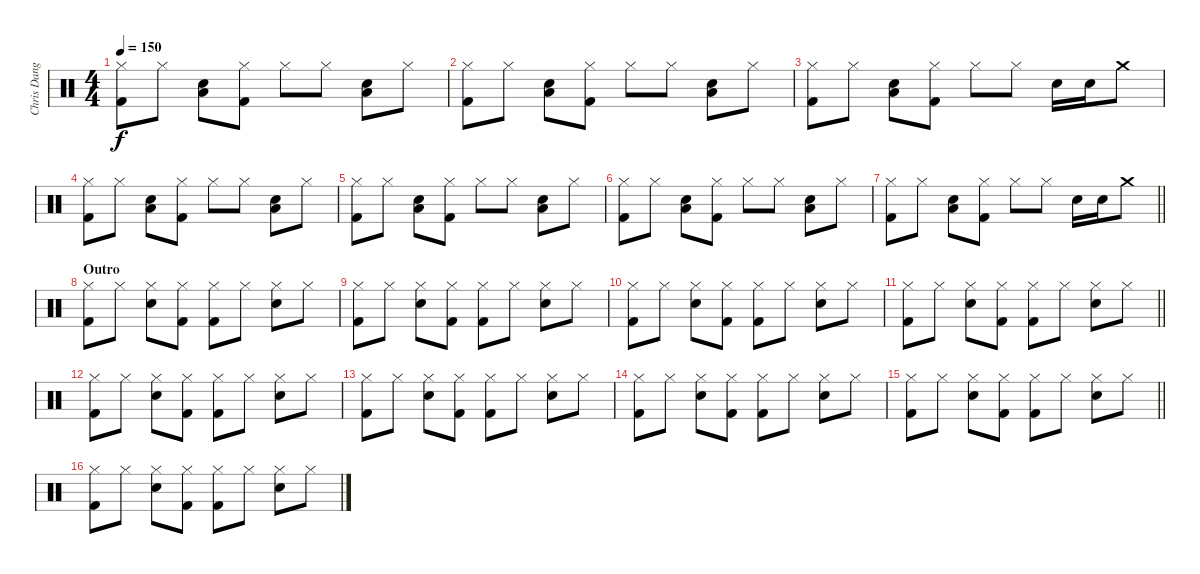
\track ("Chris Dangerous" "Chris Dang") {instrument percussion}
\staff {score}
\articulation defaults
\ts (4 4)
\tempo 150
\clef neutral
\ks c
("Hi-Hat (closed)" "Kick (hit) 2").8{dy f} "Hi-Hat (closed)".8 ("Low Floor Tom (hit)" "Snare (hit) 2").8 ("Hi-Hat (closed)" "Kick (hit) 2").8 "Hi-Hat (closed)".8 "Hi-Hat (closed)".8 ("Low Floor Tom (hit)" "Snare (hit) 2").8 "Hi-Hat (closed)".8 |
("Hi-Hat (closed)" "Kick (hit) 2").8 "Hi-Hat (closed)".8 ("Low Floor Tom (hit)" "Snare (hit) 2").8 ("Hi-Hat (closed)" "Kick (hit) 2").8 "Hi-Hat (closed)".8 "Hi-Hat (closed)".8 ("Low Floor Tom (hit)" "Snare (hit) 2").8 "Hi-Hat (closed)".8 |
("Hi-Hat (closed)" "Kick (hit) 2").8 "Hi-Hat (closed)".8 ("Low Floor Tom (hit)" "Snare (hit) 2").8 ("Hi-Hat (closed)" "Kick (hit) 2").8 "Hi-Hat (closed)".8 "Hi-Hat (closed)".8 "Snare (hit) 2".16 "Snare (hit) 2".16 "Crash medium (hit)".8 |
("Hi-Hat (closed)" "Kick (hit) 2").8 "Hi-Hat (closed)".8 ("Low Floor Tom (hit)" "Snare (hit) 2").8 ("Hi-Hat (closed)" "Kick (hit) 2").8 "Hi-Hat (closed)".8 "Hi-Hat (closed)".8 ("Low Floor Tom (hit)" "Snare (hit) 2").8 "Hi-Hat (closed)".8 |
("Hi-Hat (closed)" "Kick (hit) 2").8 "Hi-Hat (closed)".8 ("Low Floor Tom (hit)" "Snare (hit) 2").8 ("Hi-Hat (closed)" "Kick (hit) 2").8 "Hi-Hat (closed)".8 "Hi-Hat (closed)".8 ("Low Floor Tom (hit)" "Snare (hit) 2").8 "Hi-Hat (closed)".8 |
("Hi-Hat (closed)" "Kick (hit) 2").8 "Hi-Hat (closed)".8 ("Low Floor Tom (hit)" "Snare (hit) 2").8 ("Hi-Hat (closed)" "Kick (hit) 2").8 "Hi-Hat (closed)".8 "Hi-Hat (closed)".8 ("Low Floor Tom (hit)" "Snare (hit) 2").8 "Hi-Hat (closed)".8 |
\barLineRight lightlight
("Hi-Hat (closed)" "Kick (hit) 2").8 "Hi-Hat (closed)".8 ("Low Floor Tom (hit)" "Snare (hit) 2").8 ("Hi-Hat (closed)" "Kick (hit) 2").8 "Hi-Hat (closed)".8 "Hi-Hat (closed)".8 "Snare (hit) 2".16 "Snare (hit) 2".16 "Crash medium (hit)".8 |
\section ("" "Outro")
("Hi-Hat (closed)" "Kick (hit) 2").8 "Hi-Hat (closed)".8 ("Hi-Hat (closed)" "Snare (hit) 2").8 ("Hi-Hat (closed)" "Kick (hit) 2").8 ("Hi-Hat (closed)" "Kick (hit) 2").8 "Hi-Hat (closed)".8 ("Hi-Hat (closed)" "Snare (hit) 2").8 "Hi-Hat (closed)".8 |
("Hi-Hat (closed)" "Kick (hit) 2").8 "Hi-Hat (closed)".8 ("Hi-Hat (closed)" "Snare (hit) 2").8 ("Hi-Hat (closed)" "Kick (hit) 2").8 ("Hi-Hat (closed)" "Kick (hit) 2").8 "Hi-Hat (closed)".8 ("Hi-Hat (closed)" "Snare (hit) 2").8 "Hi-Hat (closed)".8 |
("Hi-Hat (closed)" "Kick (hit) 2").8 "Hi-Hat (closed)".8 ("Hi-Hat (closed)" "Snare (hit) 2").8 ("Hi-Hat (closed)" "Kick (hit) 2").8 ("Hi-Hat (closed)" "Kick (hit) 2").8 "Hi-Hat (closed)".8 ("Hi-Hat (closed)" "Snare (hit) 2").8 "Hi-Hat (closed)".8 |
\barLineRight lightlight
("Hi-Hat (closed)" "Kick (hit) 2").8 "Hi-Hat (closed)".8 ("Hi-Hat (closed)" "Snare (hit) 2").8 ("Hi-Hat (closed)" "Kick (hit) 2").8 ("Hi-Hat (closed)" "Kick (hit) 2").8 "Hi-Hat (closed)".8 ("Hi-Hat (closed)" "Snare (hit) 2").8 "Hi-Hat (closed)".8 |
("Hi-Hat (closed)" "Kick (hit) 2").8 "Hi-Hat (closed)".8 ("Hi-Hat (closed)" "Snare (hit) 2").8 ("Hi-Hat (closed)" "Kick (hit) 2").8 ("Hi-Hat (closed)" "Kick (hit) 2").8 "Hi-Hat (closed)".8 ("Hi-Hat (closed)" "Snare (hit) 2").8 "Hi-Hat (closed)".8 |
("Hi-Hat (closed)" "Kick (hit) 2").8 "Hi-Hat (closed)".8 ("Hi-Hat (closed)" "Snare (hit) 2").8 ("Hi-Hat (closed)" "Kick (hit) 2").8 ("Hi-Hat (closed)" "Kick (hit) 2").8 "Hi-Hat (closed)".8 ("Hi-Hat (closed)" "Snare (hit) 2").8 "Hi-Hat (closed)".8 |
("Hi-Hat (closed)" "Kick (hit) 2").8 "Hi-Hat (closed)".8 ("Hi-Hat (closed)" "Snare (hit) 2").8 ("Hi-Hat (closed)" "Kick (hit) 2").8 ("Hi-Hat (closed)" "Kick (hit) 2").8 "Hi-Hat (closed)".8 ("Hi-Hat (closed)" "Snare (hit) 2").8 "Hi-Hat (closed)".8 |
\barLineRight lightlight
("Hi-Hat (closed)" "Kick (hit) 2").8 "Hi-Hat (closed)".8 ("Hi-Hat (closed)" "Snare (hit) 2").8 ("Hi-Hat (closed)" "Kick (hit) 2").8 ("Hi-Hat (closed)" "Kick (hit) 2").8 "Hi-Hat (closed)".8 ("Hi-Hat (closed)" "Snare (hit) 2").8 "Hi-Hat (closed)".8 |
("Hi-Hat (closed)" "Kick (hit) 2").8 "Hi-Hat (closed)".8 ("Hi-Hat (closed)" "Snare (hit) 2").8 ("Hi-Hat (closed)" "Kick (hit) 2").8 ("Hi-Hat (closed)" "Kick (hit) 2").8 "Hi-Hat (closed)".8 ("Hi-Hat (closed)" "Snare (hit) 2").8 "Hi-Hat (closed)".8
